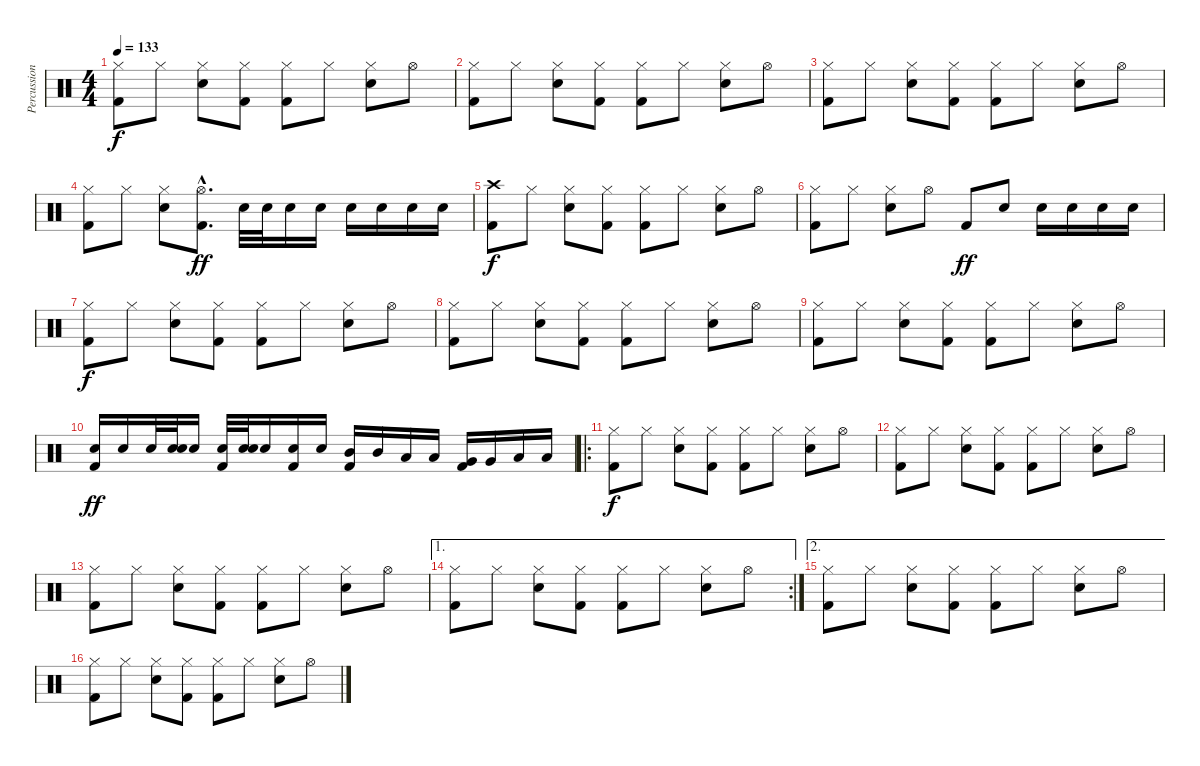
\track ("Percussions" "Percussion") {instrument percussion}
\staff {score}
\articulation defaults
\ts (4 4)
\tempo 133
\clef neutral
\ks c
("Hi-Hat (closed)" "Kick (hit) 2").8{dy f} "Hi-Hat (closed)".8 ("Hi-Hat (closed)" "Electric Snare (hit)").8 ("Hi-Hat (closed)" "Kick (hit) 2").8 ("Hi-Hat (closed)" "Kick (hit) 2").8 "Hi-Hat (closed)".8 ("Hi-Hat (closed)" "Electric Snare (hit)").8 "Hi-Hat (open)".8 |
("Hi-Hat (closed)" "Kick (hit) 2").8 "Hi-Hat (closed)".8 ("Hi-Hat (closed)" "Electric Snare (hit)").8 ("Hi-Hat (closed)" "Kick (hit) 2").8 ("Hi-Hat (closed)" "Kick (hit) 2").8 "Hi-Hat (closed)".8 ("Hi-Hat (closed)" "Electric Snare (hit)").8 "Hi-Hat (open)".8 |
("Hi-Hat (closed)" "Kick (hit) 2").8 "Hi-Hat (closed)".8 ("Hi-Hat (closed)" "Electric Snare (hit)").8 ("Hi-Hat (closed)" "Kick (hit) 2").8 ("Hi-Hat (closed)" "Kick (hit) 2").8 "Hi-Hat (closed)".8 ("Hi-Hat (closed)" "Electric Snare (hit)").8 "Hi-Hat (open)".8 |
("Hi-Hat (closed)" "Kick (hit) 2").8 "Hi-Hat (closed)".8 ("Hi-Hat (closed)" "Electric Snare (hit)").8 ("Hi-Hat (open)"{hac} "Kick (hit) 2"{hac}).8{d dy ff} "Snare (hit) 2".32 "Snare (hit) 2".32 "Snare (hit) 2".16 "Snare (hit) 2".16 "Electric Snare (hit)".16 "Electric Snare (hit)".16 "Snare (hit) 2".16 "Electric Snare (hit)".16 |
("Crash high (hit)" "Kick (hit) 2").8{dy f} "Hi-Hat (closed)".8 ("Hi-Hat (closed)" "Electric Snare (hit)").8 ("Hi-Hat (closed)" "Kick (hit) 2").8 ("Hi-Hat (closed)" "Kick (hit) 2").8 "Hi-Hat (closed)".8 ("Hi-Hat (closed)" "Electric Snare (hit)").8 "Hi-Hat (open)".8 |
("Hi-Hat (closed)" "Kick (hit) 2").8 "Hi-Hat (closed)".8 ("Hi-Hat (closed)" "Electric Snare (hit)").8 "Hi-Hat (open)".8 "Kick (hit) 2".8{dy ff} "Electric Snare (hit)".8 "Electric Snare (hit)".16 "Electric Snare (hit)".16 "Snare (hit) 2".16 "Electric Snare (hit)".16 |
("Hi-Hat (closed)" "Kick (hit) 2").8{dy f} "Hi-Hat (closed)".8 ("Hi-Hat (closed)" "Electric Snare (hit)").8 ("Hi-Hat (closed)" "Kick (hit) 2").8 ("Hi-Hat (closed)" "Kick (hit) 2").8 "Hi-Hat (closed)".8 ("Hi-Hat (closed)" "Electric Snare (hit)").8 "Hi-Hat (open)".8 |
("Hi-Hat (closed)" "Kick (hit) 2").8 "Hi-Hat (closed)".8 ("Hi-Hat (closed)" "Electric Snare (hit)").8 ("Hi-Hat (closed)" "Kick (hit) 2").8 ("Hi-Hat (closed)" "Kick (hit) 2").8 "Hi-Hat (closed)".8 ("Hi-Hat (closed)" "Electric Snare (hit)").8 "Hi-Hat (open)".8 |
("Hi-Hat (closed)" "Kick (hit) 2").8 "Hi-Hat (closed)".8 ("Hi-Hat (closed)" "Electric Snare (hit)").8 ("Hi-Hat (closed)" "Kick (hit) 2").8 ("Hi-Hat (closed)" "Kick (hit) 2").8 "Hi-Hat (closed)".8 ("Hi-Hat (closed)" "Electric Snare (hit)").8 "Hi-Hat (open)".8 |
("Snare (hit) 2" "Kick (hit) 2").16{dy ff} "Snare (hit) 2".16 "Electric Snare (hit)".32 ("Snare (hit) 2" "Electric Snare (hit)").32 "Snare (hit) 2".16 ("Electric Snare (hit)" "Kick (hit) 2").32 ("Snare (hit) 2" "Electric Snare (hit)").32 "Snare (hit) 2".16 ("Snare (hit) 2" "Kick (hit) 2").16 "Snare (hit) 2".16 ("Mid Tom (hit)" "Kick (hit) 2").16 "Mid Tom (hit)".16 "Low Tom (hit)".16 "Low Tom (hit)".16 ("Very Low Tom (hit)" "Kick (hit) 2").16 "Very Low Tom (hit)".16 "Low Floor Tom (hit)".16 "Low Floor Tom (hit)".16 |
\ro
("Hi-Hat (closed)" "Kick (hit) 2").8{dy f} "Hi-Hat (closed)".8 ("Hi-Hat (closed)" "Electric Snare (hit)").8 ("Hi-Hat (closed)" "Kick (hit) 2").8 ("Hi-Hat (closed)" "Kick (hit) 2").8 "Hi-Hat (closed)".8 ("Hi-Hat (closed)" "Electric Snare (hit)").8 "Hi-Hat (open)".8 |
("Hi-Hat (closed)" "Kick (hit) 2").8 "Hi-Hat (closed)".8 ("Hi-Hat (closed)" "Electric Snare (hit)").8 ("Hi-Hat (closed)" "Kick (hit) 2").8 ("Hi-Hat (closed)" "Kick (hit) 2").8 "Hi-Hat (closed)".8 ("Hi-Hat (closed)" "Electric Snare (hit)").8 "Hi-Hat (open)".8 |
("Hi-Hat (closed)" "Kick (hit) 2").8 "Hi-Hat (closed)".8 ("Hi-Hat (closed)" "Electric Snare (hit)").8 ("Hi-Hat (closed)" "Kick (hit) 2").8 ("Hi-Hat (closed)" "Kick (hit) 2").8 "Hi-Hat (closed)".8 ("Hi-Hat (closed)" "Electric Snare (hit)").8 "Hi-Hat (open)".8 |
\ae 1
\rc 2
("Hi-Hat (closed)" "Kick (hit) 2").8 "Hi-Hat (closed)".8 ("Hi-Hat (closed)" "Electric Snare (hit)").8 ("Hi-Hat (closed)" "Kick (hit) 2").8 ("Hi-Hat (closed)" "Kick (hit) 2").8 "Hi-Hat (closed)".8 ("Hi-Hat (closed)" "Electric Snare (hit)").8 "Hi-Hat (open)".8 |
\ae 2
("Hi-Hat (closed)" "Kick (hit) 2").8 "Hi-Hat (closed)".8 ("Hi-Hat (closed)" "Electric Snare (hit)").8 ("Hi-Hat (closed)" "Kick (hit) 2").8 ("Hi-Hat (closed)" "Kick (hit) 2").8 "Hi-Hat (closed)".8 ("Hi-Hat (closed)" "Electric Snare (hit)").8 "Hi-Hat (open)".8 |
("Hi-Hat (closed)" "Kick (hit) 2").8 "Hi-Hat (closed)".8 ("Hi-Hat (closed)" "Electric Snare (hit)").8 ("Hi-Hat (closed)" "Kick (hit) 2").8 ("Hi-Hat (closed)" "Kick (hit) 2").8 "Hi-Hat (closed)".8 ("Hi-Hat (closed)" "Electric Snare (hit)").8 "Hi-Hat (open)".8
